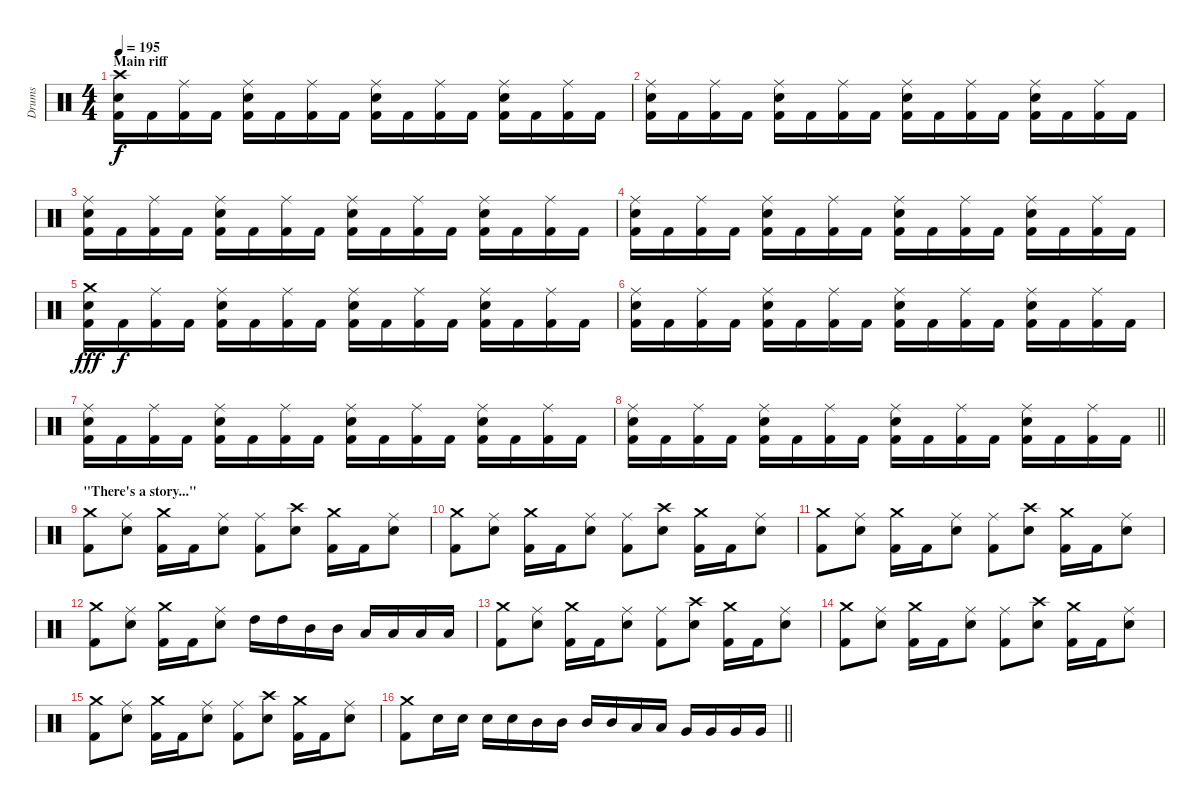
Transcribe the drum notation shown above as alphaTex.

\track ("Drums" "Drums") {instrument percussion}
\staff {score}
\articulation defaults
\ts (4 4)
\section ("" "Main riff")
\tempo 195
\clef neutral
\ks c
("Crash high (hit)" "Snare (hit) 2" "Kick (hit) 2").16{dy f} "Kick (hit) 2".16 ("Ride (middle)" "Kick (hit) 2").16 "Kick (hit) 2".16 ("Ride (middle)" "Snare (hit) 2" "Kick (hit) 2").16 "Kick (hit) 2".16 ("Ride (middle)" "Kick (hit) 2").16 "Kick (hit) 2".16 ("Ride (middle)" "Snare (hit) 2" "Kick (hit) 2").16 "Kick (hit) 2".16 ("Ride (middle)" "Kick (hit) 2").16 "Kick (hit) 2".16 ("Ride (middle)" "Snare (hit) 2" "Kick (hit) 2").16 "Kick (hit) 2".16 ("Ride (middle)" "Kick (hit) 2").16 "Kick (hit) 2".16 |
("Ride (middle)" "Snare (hit) 2" "Kick (hit) 2").16 "Kick (hit) 2".16 ("Ride (middle)" "Kick (hit) 2").16 "Kick (hit) 2".16 ("Ride (middle)" "Snare (hit) 2" "Kick (hit) 2").16 "Kick (hit) 2".16 ("Ride (middle)" "Kick (hit) 2").16 "Kick (hit) 2".16 ("Ride (middle)" "Snare (hit) 2" "Kick (hit) 2").16 "Kick (hit) 2".16 ("Ride (middle)" "Kick (hit) 2").16 "Kick (hit) 2".16 ("Ride (middle)" "Snare (hit) 2" "Kick (hit) 2").16 "Kick (hit) 2".16 ("Ride (middle)" "Kick (hit) 2").16 "Kick (hit) 2".16 |
("Ride (middle)" "Snare (hit) 2" "Kick (hit) 2").16 "Kick (hit) 2".16 ("Ride (middle)" "Kick (hit) 2").16 "Kick (hit) 2".16 ("Ride (middle)" "Snare (hit) 2" "Kick (hit) 2").16 "Kick (hit) 2".16 ("Ride (middle)" "Kick (hit) 2").16 "Kick (hit) 2".16 ("Ride (middle)" "Snare (hit) 2" "Kick (hit) 2").16 "Kick (hit) 2".16 ("Ride (middle)" "Kick (hit) 2").16 "Kick (hit) 2".16 ("Ride (middle)" "Snare (hit) 2" "Kick (hit) 2").16 "Kick (hit) 2".16 ("Ride (middle)" "Kick (hit) 2").16 "Kick (hit) 2".16 |
("Ride (middle)" "Snare (hit) 2" "Kick (hit) 2").16 "Kick (hit) 2".16 ("Ride (middle)" "Kick (hit) 2").16 "Kick (hit) 2".16 ("Ride (middle)" "Snare (hit) 2" "Kick (hit) 2").16 "Kick (hit) 2".16 ("Ride (middle)" "Kick (hit) 2").16 "Kick (hit) 2".16 ("Ride (middle)" "Snare (hit) 2" "Kick (hit) 2").16 "Kick (hit) 2".16 ("Ride (middle)" "Kick (hit) 2").16 "Kick (hit) 2".16 ("Ride (middle)" "Snare (hit) 2" "Kick (hit) 2").16 "Kick (hit) 2".16 ("Ride (middle)" "Kick (hit) 2").16 "Kick (hit) 2".16 |
("Crash medium (hit)" "Snare (hit) 2" "Kick (hit) 2").16{dy fff} "Kick (hit) 2".16{dy f} ("Ride (middle)" "Kick (hit) 2").16 "Kick (hit) 2".16 ("Ride (middle)" "Snare (hit) 2" "Kick (hit) 2").16 "Kick (hit) 2".16 ("Ride (middle)" "Kick (hit) 2").16 "Kick (hit) 2".16 ("Ride (middle)" "Snare (hit) 2" "Kick (hit) 2").16 "Kick (hit) 2".16 ("Ride (middle)" "Kick (hit) 2").16 "Kick (hit) 2".16 ("Ride (middle)" "Snare (hit) 2" "Kick (hit) 2").16 "Kick (hit) 2".16 ("Ride (middle)" "Kick (hit) 2").16 "Kick (hit) 2".16 |
("Ride (middle)" "Snare (hit) 2" "Kick (hit) 2").16 "Kick (hit) 2".16 ("Ride (middle)" "Kick (hit) 2").16 "Kick (hit) 2".16 ("Ride (middle)" "Snare (hit) 2" "Kick (hit) 2").16 "Kick (hit) 2".16 ("Ride (middle)" "Kick (hit) 2").16 "Kick (hit) 2".16 ("Ride (middle)" "Snare (hit) 2" "Kick (hit) 2").16 "Kick (hit) 2".16 ("Ride (middle)" "Kick (hit) 2").16 "Kick (hit) 2".16 ("Ride (middle)" "Snare (hit) 2" "Kick (hit) 2").16 "Kick (hit) 2".16 ("Ride (middle)" "Kick (hit) 2").16 "Kick (hit) 2".16 |
("Ride (middle)" "Snare (hit) 2" "Kick (hit) 2").16 "Kick (hit) 2".16 ("Ride (middle)" "Kick (hit) 2").16 "Kick (hit) 2".16 ("Ride (middle)" "Snare (hit) 2" "Kick (hit) 2").16 "Kick (hit) 2".16 ("Ride (middle)" "Kick (hit) 2").16 "Kick (hit) 2".16 ("Ride (middle)" "Snare (hit) 2" "Kick (hit) 2").16 "Kick (hit) 2".16 ("Ride (middle)" "Kick (hit) 2").16 "Kick (hit) 2".16 ("Ride (middle)" "Snare (hit) 2" "Kick (hit) 2").16 "Kick (hit) 2".16 ("Ride (middle)" "Kick (hit) 2").16 "Kick (hit) 2".16 |
\barLineRight lightlight
("Ride (middle)" "Snare (hit) 2" "Kick (hit) 2").16 "Kick (hit) 2".16 ("Ride (middle)" "Kick (hit) 2").16 "Kick (hit) 2".16 ("Ride (middle)" "Snare (hit) 2" "Kick (hit) 2").16 "Kick (hit) 2".16 ("Ride (middle)" "Kick (hit) 2").16 "Kick (hit) 2".16 ("Ride (middle)" "Snare (hit) 2" "Kick (hit) 2").16 "Kick (hit) 2".16 ("Ride (middle)" "Kick (hit) 2").16 "Kick (hit) 2".16 ("Ride (middle)" "Snare (hit) 2" "Kick (hit) 2").16 "Kick (hit) 2".16 ("Ride (middle)" "Kick (hit) 2").16 "Kick (hit) 2".16 |
\section ("" "\"There's a story...\"")
("Crash medium (hit)" "Kick (hit) 2").8 ("Ride (middle)" "Snare (hit) 2").8 ("Crash medium (hit)" "Kick (hit) 2").16 "Kick (hit) 2".16 ("Ride (middle)" "Snare (hit) 2").8 ("Ride (middle)" "Kick (hit) 2").8 ("Crash high (hit)" "Snare (hit) 2").8 ("Crash medium (hit)" "Kick (hit) 2").16 "Kick (hit) 2".16 ("Ride (middle)" "Snare (hit) 2").8 |
("Crash medium (hit)" "Kick (hit) 2").8 ("Ride (middle)" "Snare (hit) 2").8 ("Crash medium (hit)" "Kick (hit) 2").16 "Kick (hit) 2".16 ("Ride (middle)" "Snare (hit) 2").8 ("Ride (middle)" "Kick (hit) 2").8 ("Crash high (hit)" "Snare (hit) 2").8 ("Crash medium (hit)" "Kick (hit) 2").16 "Kick (hit) 2".16 ("Ride (middle)" "Snare (hit) 2").8 |
("Crash medium (hit)" "Kick (hit) 2").8 ("Ride (middle)" "Snare (hit) 2").8 ("Crash medium (hit)" "Kick (hit) 2").16 "Kick (hit) 2".16 ("Ride (middle)" "Snare (hit) 2").8 ("Ride (middle)" "Kick (hit) 2").8 ("Crash high (hit)" "Snare (hit) 2").8 ("Crash medium (hit)" "Kick (hit) 2").16 "Kick (hit) 2".16 ("Ride (middle)" "Snare (hit) 2").8 |
("Crash medium (hit)" "Kick (hit) 2").8 ("Ride (middle)" "Snare (hit) 2").8 ("Crash medium (hit)" "Kick (hit) 2").16 "Kick (hit) 2".16 ("Ride (middle)" "Snare (hit) 2").8 "High Tom (hit)".16 "High Tom (hit)".16 "Mid Tom (hit)".16 "Mid Tom (hit)".16 "Low Tom (hit)".16 "Low Tom (hit)".16 "Low Tom (hit)".16 "Low Tom (hit)".16 |
("Crash medium (hit)" "Kick (hit) 2").8 ("Ride (middle)" "Snare (hit) 2").8 ("Crash medium (hit)" "Kick (hit) 2").16 "Kick (hit) 2".16 ("Ride (middle)" "Snare (hit) 2").8 ("Ride (middle)" "Kick (hit) 2").8 ("Crash high (hit)" "Snare (hit) 2").8 ("Crash medium (hit)" "Kick (hit) 2").16 "Kick (hit) 2".16 ("Ride (middle)" "Snare (hit) 2").8 |
("Crash medium (hit)" "Kick (hit) 2").8 ("Ride (middle)" "Snare (hit) 2").8 ("Crash medium (hit)" "Kick (hit) 2").16 "Kick (hit) 2".16 ("Ride (middle)" "Snare (hit) 2").8 ("Ride (middle)" "Kick (hit) 2").8 ("Crash high (hit)" "Snare (hit) 2").8 ("Crash medium (hit)" "Kick (hit) 2").16 "Kick (hit) 2".16 ("Ride (middle)" "Snare (hit) 2").8 |
("Crash medium (hit)" "Kick (hit) 2").8 ("Ride (middle)" "Snare (hit) 2").8 ("Crash medium (hit)" "Kick (hit) 2").16 "Kick (hit) 2".16 ("Ride (middle)" "Snare (hit) 2").8 ("Ride (middle)" "Kick (hit) 2").8 ("Crash high (hit)" "Snare (hit) 2").8 ("Crash medium (hit)" "Kick (hit) 2").16 "Kick (hit) 2".16 ("Ride (middle)" "Snare (hit) 2").8 |
\barLineRight lightlight
("Crash medium (hit)" "Kick (hit) 2").8 "Snare (hit) 2".16 "Snare (hit) 2".16 "Snare (hit) 2".16 "Snare (hit) 2".16 "Mid Tom (hit)".16 "Mid Tom (hit)".16 "Mid Tom (hit)".16 "Mid Tom (hit)".16 "Low Tom (hit)".16 "Low Tom (hit)".16 "Very Low Tom (hit)".16 "Very Low Tom (hit)".16 "Very Low Tom (hit)".16 "Very Low Tom (hit)".16
